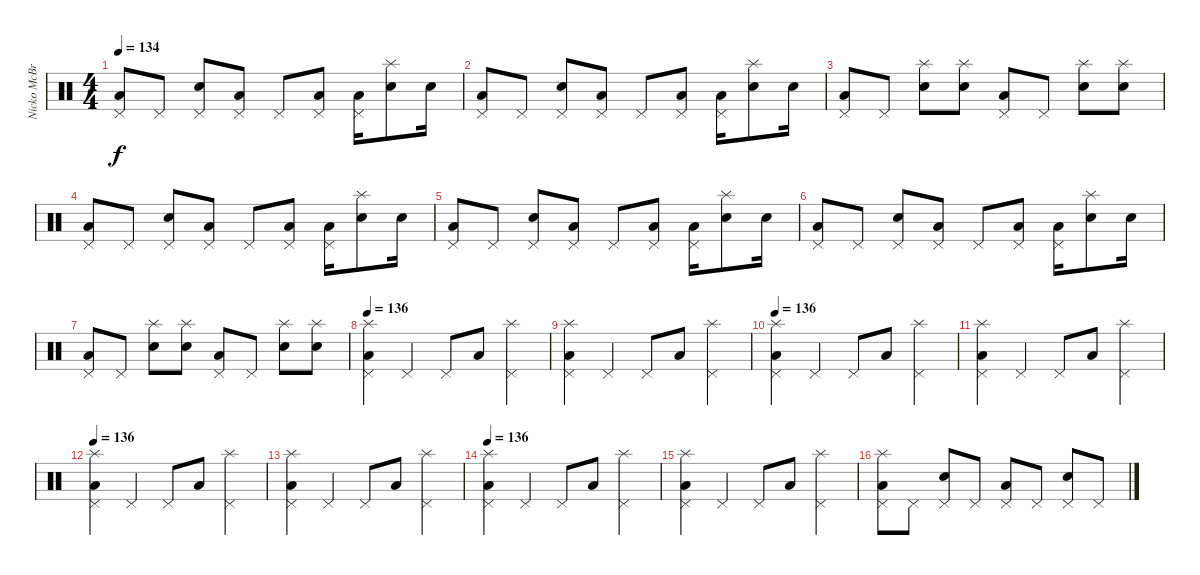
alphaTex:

\track ("Nicko McBrian" "Nicko McBr") {instrument percussion}
\staff {score}
\articulation defaults
\ts (4 4)
\tempo 134
\clef neutral
\ks c
("Low Floor Tom (hit)" "Pedal Hi-Hat (hit)").8{dy f} "Pedal Hi-Hat (hit)".8 ("Electric Snare (hit)" "Pedal Hi-Hat (hit)").8 ("Low Floor Tom (hit)" "Pedal Hi-Hat (hit)").8 "Pedal Hi-Hat (hit)".8 ("Low Floor Tom (hit)" "Pedal Hi-Hat (hit)").8 ("Low Floor Tom (hit)" "Pedal Hi-Hat (hit)").16 ("Electric Snare (hit)" "Splash (hit)").8 "Electric Snare (hit)".16 |
("Low Floor Tom (hit)" "Pedal Hi-Hat (hit)").8 "Pedal Hi-Hat (hit)".8 ("Electric Snare (hit)" "Pedal Hi-Hat (hit)").8 ("Low Floor Tom (hit)" "Pedal Hi-Hat (hit)").8 "Pedal Hi-Hat (hit)".8 ("Low Floor Tom (hit)" "Pedal Hi-Hat (hit)").8 ("Low Floor Tom (hit)" "Pedal Hi-Hat (hit)").16 ("Electric Snare (hit)" "Splash (hit)").8 "Electric Snare (hit)".16 |
("Low Floor Tom (hit)" "Pedal Hi-Hat (hit)").8 "Pedal Hi-Hat (hit)".8 ("Electric Snare (hit)" "Splash (hit)").8 ("Electric Snare (hit)" "Splash (hit)").8 ("Low Floor Tom (hit)" "Pedal Hi-Hat (hit)").8 "Pedal Hi-Hat (hit)".8 ("Electric Snare (hit)" "Splash (hit)").8 ("Electric Snare (hit)" "Splash (hit)").8 |
("Low Floor Tom (hit)" "Pedal Hi-Hat (hit)").8 "Pedal Hi-Hat (hit)".8 ("Electric Snare (hit)" "Pedal Hi-Hat (hit)").8 ("Low Floor Tom (hit)" "Pedal Hi-Hat (hit)").8 "Pedal Hi-Hat (hit)".8 ("Low Floor Tom (hit)" "Pedal Hi-Hat (hit)").8 ("Low Floor Tom (hit)" "Pedal Hi-Hat (hit)").16 ("Electric Snare (hit)" "Splash (hit)").8 "Electric Snare (hit)".16 |
("Low Floor Tom (hit)" "Pedal Hi-Hat (hit)").8 "Pedal Hi-Hat (hit)".8 ("Electric Snare (hit)" "Pedal Hi-Hat (hit)").8 ("Low Floor Tom (hit)" "Pedal Hi-Hat (hit)").8 "Pedal Hi-Hat (hit)".8 ("Low Floor Tom (hit)" "Pedal Hi-Hat (hit)").8 ("Low Floor Tom (hit)" "Pedal Hi-Hat (hit)").16 ("Electric Snare (hit)" "Splash (hit)").8 "Electric Snare (hit)".16 |
("Low Floor Tom (hit)" "Pedal Hi-Hat (hit)").8 "Pedal Hi-Hat (hit)".8 ("Electric Snare (hit)" "Pedal Hi-Hat (hit)").8 ("Low Floor Tom (hit)" "Pedal Hi-Hat (hit)").8 "Pedal Hi-Hat (hit)".8 ("Low Floor Tom (hit)" "Pedal Hi-Hat (hit)").8 ("Low Floor Tom (hit)" "Pedal Hi-Hat (hit)").16 ("Electric Snare (hit)" "Splash (hit)").8 "Electric Snare (hit)".16 |
("Low Floor Tom (hit)" "Pedal Hi-Hat (hit)").8 "Pedal Hi-Hat (hit)".8 ("Electric Snare (hit)" "Splash (hit)").8 ("Electric Snare (hit)" "Splash (hit)").8 ("Low Floor Tom (hit)" "Pedal Hi-Hat (hit)").8 "Pedal Hi-Hat (hit)".8 ("Electric Snare (hit)" "Splash (hit)").8 ("Electric Snare (hit)" "Splash (hit)").8 |
\tempo 136
("Low Floor Tom (hit)" "Pedal Hi-Hat (hit)" "Splash (hit)").4 "Pedal Hi-Hat (hit)".4 "Pedal Hi-Hat (hit)".8 "Low Floor Tom (hit)".8 ("Pedal Hi-Hat (hit)" "Splash (hit)").4 |
("Low Floor Tom (hit)" "Pedal Hi-Hat (hit)" "Splash (hit)").4 "Pedal Hi-Hat (hit)".4 "Pedal Hi-Hat (hit)".8 "Low Floor Tom (hit)".8 ("Pedal Hi-Hat (hit)" "Splash (hit)").4 |
\tempo 136
("Low Floor Tom (hit)" "Pedal Hi-Hat (hit)" "Splash (hit)").4 "Pedal Hi-Hat (hit)".4 "Pedal Hi-Hat (hit)".8 "Low Floor Tom (hit)".8 ("Pedal Hi-Hat (hit)" "Splash (hit)").4 |
("Low Floor Tom (hit)" "Pedal Hi-Hat (hit)" "Splash (hit)").4 "Pedal Hi-Hat (hit)".4 "Pedal Hi-Hat (hit)".8 "Low Floor Tom (hit)".8 ("Pedal Hi-Hat (hit)" "Splash (hit)").4 |
\tempo 136
("Low Floor Tom (hit)" "Pedal Hi-Hat (hit)" "Splash (hit)").4 "Pedal Hi-Hat (hit)".4 "Pedal Hi-Hat (hit)".8 "Low Floor Tom (hit)".8 ("Pedal Hi-Hat (hit)" "Splash (hit)").4 |
("Low Floor Tom (hit)" "Pedal Hi-Hat (hit)" "Splash (hit)").4 "Pedal Hi-Hat (hit)".4 "Pedal Hi-Hat (hit)".8 "Low Floor Tom (hit)".8 ("Pedal Hi-Hat (hit)" "Splash (hit)").4 |
\tempo 136
("Low Floor Tom (hit)" "Pedal Hi-Hat (hit)" "Splash (hit)").4 "Pedal Hi-Hat (hit)".4 "Pedal Hi-Hat (hit)".8 "Low Floor Tom (hit)".8 ("Pedal Hi-Hat (hit)" "Splash (hit)").4 |
("Low Floor Tom (hit)" "Pedal Hi-Hat (hit)" "Splash (hit)").4 "Pedal Hi-Hat (hit)".4 "Pedal Hi-Hat (hit)".8 "Low Floor Tom (hit)".8 ("Pedal Hi-Hat (hit)" "Splash (hit)").4 |
("Low Floor Tom (hit)" "Pedal Hi-Hat (hit)" "Splash (hit)").8 "Pedal Hi-Hat (hit)".8 ("Electric Snare (hit)" "Pedal Hi-Hat (hit)").8 "Pedal Hi-Hat (hit)".8 ("Low Floor Tom (hit)" "Pedal Hi-Hat (hit)").8 "Pedal Hi-Hat (hit)".8 ("Electric Snare (hit)" "Pedal Hi-Hat (hit)").8 "Pedal Hi-Hat (hit)".8
